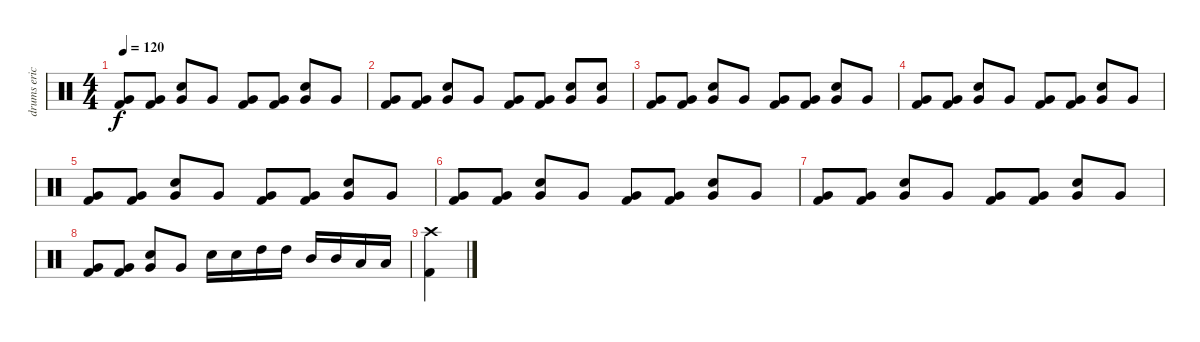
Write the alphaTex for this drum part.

\track ("drums eric carr" "drums eric") {instrument percussion}
\staff {score}
\articulation defaults
\ts (4 4)
\tempo 120
\clef neutral
\ks c
("Very Low Tom (hit)" "Kick (hit) 2").8{dy f} ("Very Low Tom (hit)" "Kick (hit) 2").8 ("Very Low Tom (hit)" "Snare (hit) 2").8 "Very Low Tom (hit)".8 ("Very Low Tom (hit)" "Kick (hit) 2").8 ("Very Low Tom (hit)" "Kick (hit) 2").8 ("Very Low Tom (hit)" "Snare (hit) 2").8 "Very Low Tom (hit)".8 |
("Very Low Tom (hit)" "Kick (hit) 2").8 ("Very Low Tom (hit)" "Kick (hit) 2").8 ("Very Low Tom (hit)" "Snare (hit) 2").8 "Very Low Tom (hit)".8 ("Very Low Tom (hit)" "Kick (hit) 2").8 ("Very Low Tom (hit)" "Kick (hit) 2").8 ("Very Low Tom (hit)" "Snare (hit) 2").8 ("Very Low Tom (hit)" "Snare (hit) 2").8 |
("Very Low Tom (hit)" "Kick (hit) 2").8 ("Very Low Tom (hit)" "Kick (hit) 2").8 ("Very Low Tom (hit)" "Snare (hit) 2").8 "Very Low Tom (hit)".8 ("Very Low Tom (hit)" "Kick (hit) 2").8 ("Very Low Tom (hit)" "Kick (hit) 2").8 ("Very Low Tom (hit)" "Snare (hit) 2").8 "Very Low Tom (hit)".8 |
("Very Low Tom (hit)" "Kick (hit) 2").8 ("Very Low Tom (hit)" "Kick (hit) 2").8 ("Very Low Tom (hit)" "Snare (hit) 2").8 "Very Low Tom (hit)".8 ("Very Low Tom (hit)" "Kick (hit) 2").8 ("Very Low Tom (hit)" "Kick (hit) 2").8 ("Very Low Tom (hit)" "Snare (hit) 2").8 "Very Low Tom (hit)".8 |
("Very Low Tom (hit)" "Kick (hit) 2").8 ("Very Low Tom (hit)" "Kick (hit) 2").8 ("Very Low Tom (hit)" "Snare (hit) 2").8 "Very Low Tom (hit)".8 ("Very Low Tom (hit)" "Kick (hit) 2").8 ("Very Low Tom (hit)" "Kick (hit) 2").8 ("Very Low Tom (hit)" "Snare (hit) 2").8 "Very Low Tom (hit)".8 |
("Very Low Tom (hit)" "Kick (hit) 2").8 ("Very Low Tom (hit)" "Kick (hit) 2").8 ("Very Low Tom (hit)" "Snare (hit) 2").8 "Very Low Tom (hit)".8 ("Very Low Tom (hit)" "Kick (hit) 2").8 ("Very Low Tom (hit)" "Kick (hit) 2").8 ("Very Low Tom (hit)" "Snare (hit) 2").8 "Very Low Tom (hit)".8 |
("Very Low Tom (hit)" "Kick (hit) 2").8 ("Very Low Tom (hit)" "Kick (hit) 2").8 ("Very Low Tom (hit)" "Snare (hit) 2").8 "Very Low Tom (hit)".8 ("Very Low Tom (hit)" "Kick (hit) 2").8 ("Very Low Tom (hit)" "Kick (hit) 2").8 ("Very Low Tom (hit)" "Snare (hit) 2").8 "Very Low Tom (hit)".8 |
("Very Low Tom (hit)" "Kick (hit) 2").8 ("Very Low Tom (hit)" "Kick (hit) 2").8 ("Very Low Tom (hit)" "Snare (hit) 2").8 "Very Low Tom (hit)".8 "Snare (hit) 2".16 "Snare (hit) 2".16 "High Tom (hit)".16 "High Tom (hit)".16 "Mid Tom (hit)".16 "Mid Tom (hit)".16 "Low Tom (hit)".16 "Low Tom (hit)".16 |
("Kick (hit) 2" "Crash high (hit)").4
